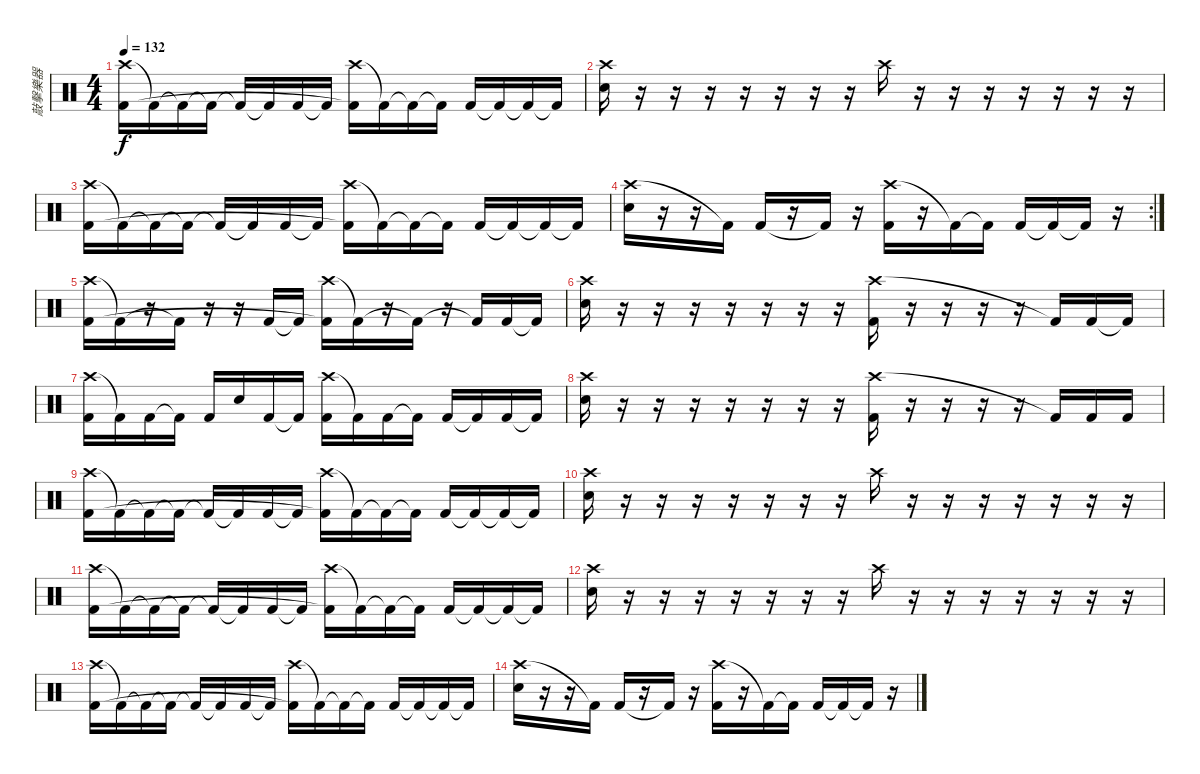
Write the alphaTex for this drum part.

\track ("敲擊樂器" "敲擊樂器") {instrument percussion}
\staff {score}
\articulation defaults
\ts (4 4)
\tempo 132
\clef neutral
\ks c
("Crash high (hit)" "Kick (hit) 2").16{dy f} "Kick (hit) 2"{t}.16 "Kick (hit) 2"{t}.16 "Kick (hit) 2"{t}.16 "Kick (hit) 2"{t}.16 "Kick (hit) 2"{t}.16 "Kick (hit) 2".16 "Kick (hit) 2"{t}.16 ("Crash high (hit)" "Kick (hit) 2"{t}).16 "Kick (hit) 2"{t}.16 "Kick (hit) 2"{t}.16 "Kick (hit) 2"{t}.16 "Kick (hit) 2".16 "Kick (hit) 2"{t}.16 "Kick (hit) 2"{t}.16 "Kick (hit) 2"{t}.16 |
("Crash high (hit)" "Electric Snare (hit)").16 r.16 r.16 r.16 r.16 r.16 r.16 r.16 "Crash high (hit)".16 r.16 r.16 r.16 r.16 r.16 r.16 r.16 |
("Crash high (hit)" "Kick (hit) 2").16 "Kick (hit) 2"{t}.16 "Kick (hit) 2"{t}.16 "Kick (hit) 2"{t}.16 "Kick (hit) 2"{t}.16 "Kick (hit) 2"{t}.16 "Kick (hit) 2".16 "Kick (hit) 2"{t}.16 ("Crash high (hit)" "Kick (hit) 2"{t}).16 "Kick (hit) 2"{t}.16 "Kick (hit) 2"{t}.16 "Kick (hit) 2"{t}.16 "Kick (hit) 2".16 "Kick (hit) 2"{t}.16 "Kick (hit) 2"{t}.16 "Kick (hit) 2"{t}.16 |
\rc 2
("Crash high (hit)" "Electric Snare (hit)").16 r.16 r.16 "Kick (hit) 2"{t}.16 "Kick (hit) 2".16 r.16 "Kick (hit) 2"{t}.16 r.16 ("Crash high (hit)" "Kick (hit) 2").16 r.16 "Kick (hit) 2"{t}.16 "Kick (hit) 2"{t}.16 "Kick (hit) 2".16 "Kick (hit) 2"{t}.16 "Kick (hit) 2"{t}.16 r.16 |
("Crash high (hit)" "Kick (hit) 2").16 "Kick (hit) 2"{t}.16 r.16 "Kick (hit) 2"{t}.16 r.16 r.16 "Kick (hit) 2".16 "Kick (hit) 2"{t}.16 ("Crash high (hit)" "Kick (hit) 2"{t}).16 "Kick (hit) 2"{t}.16 r.16 "Kick (hit) 2"{t}.16 r.16 "Kick (hit) 2"{t}.16 "Kick (hit) 2".16 "Kick (hit) 2"{t}.16 |
("Crash high (hit)" "Electric Snare (hit)").16 r.16 r.16 r.16 r.16 r.16 r.16 r.16 ("Crash high (hit)" "Kick (hit) 2").16 r.16 r.16 r.16 r.16 "Kick (hit) 2"{t}.16 "Kick (hit) 2".16 "Kick (hit) 2"{t}.16 |
("Crash high (hit)" "Kick (hit) 2").16 "Kick (hit) 2"{t}.16 "Kick (hit) 2".16 "Kick (hit) 2"{t}.16 "Kick (hit) 2".16 "Snare (hit)".16 "Kick (hit) 2".16 "Kick (hit) 2"{t}.16 ("Crash high (hit)" "Kick (hit) 2").16 "Kick (hit) 2"{t}.16 "Kick (hit) 2".16 "Kick (hit) 2"{t}.16 "Kick (hit) 2".16 "Kick (hit) 2"{t}.16 "Kick (hit) 2".16 "Kick (hit) 2"{t}.16 |
("Crash high (hit)" "Electric Snare (hit)").16 r.16 r.16 r.16 r.16 r.16 r.16 r.16 ("Crash high (hit)" "Kick (hit) 2").16 r.16 r.16 r.16 r.16 "Kick (hit) 2"{t}.16 "Kick (hit) 2".16 "Kick (hit) 2".16 |
("Crash high (hit)" "Kick (hit) 2").16 "Kick (hit) 2"{t}.16 "Kick (hit) 2"{t}.16 "Kick (hit) 2"{t}.16 "Kick (hit) 2"{t}.16 "Kick (hit) 2"{t}.16 "Kick (hit) 2".16 "Kick (hit) 2"{t}.16 ("Crash high (hit)" "Kick (hit) 2"{t}).16 "Kick (hit) 2"{t}.16 "Kick (hit) 2"{t}.16 "Kick (hit) 2"{t}.16 "Kick (hit) 2".16 "Kick (hit) 2"{t}.16 "Kick (hit) 2"{t}.16 "Kick (hit) 2"{t}.16 |
("Crash high (hit)" "Electric Snare (hit)").16 r.16 r.16 r.16 r.16 r.16 r.16 r.16 "Crash high (hit)".16 r.16 r.16 r.16 r.16 r.16 r.16 r.16 |
("Crash high (hit)" "Kick (hit) 2").16 "Kick (hit) 2"{t}.16 "Kick (hit) 2"{t}.16 "Kick (hit) 2"{t}.16 "Kick (hit) 2"{t}.16 "Kick (hit) 2"{t}.16 "Kick (hit) 2".16 "Kick (hit) 2"{t}.16 ("Crash high (hit)" "Kick (hit) 2"{t}).16 "Kick (hit) 2"{t}.16 "Kick (hit) 2"{t}.16 "Kick (hit) 2"{t}.16 "Kick (hit) 2".16 "Kick (hit) 2"{t}.16 "Kick (hit) 2"{t}.16 "Kick (hit) 2"{t}.16 |
("Crash high (hit)" "Electric Snare (hit)").16 r.16 r.16 r.16 r.16 r.16 r.16 r.16 "Crash high (hit)".16 r.16 r.16 r.16 r.16 r.16 r.16 r.16 |
("Crash high (hit)" "Kick (hit) 2").16 "Kick (hit) 2"{t}.16 "Kick (hit) 2"{t}.16 "Kick (hit) 2"{t}.16 "Kick (hit) 2"{t}.16 "Kick (hit) 2"{t}.16 "Kick (hit) 2".16 "Kick (hit) 2"{t}.16 ("Crash high (hit)" "Kick (hit) 2"{t}).16 "Kick (hit) 2"{t}.16 "Kick (hit) 2"{t}.16 "Kick (hit) 2"{t}.16 "Kick (hit) 2".16 "Kick (hit) 2"{t}.16 "Kick (hit) 2"{t}.16 "Kick (hit) 2"{t}.16 |
("Crash high (hit)" "Electric Snare (hit)").16 r.16 r.16 "Kick (hit) 2"{t}.16 "Kick (hit) 2".16 r.16 "Kick (hit) 2"{t}.16 r.16 ("Crash high (hit)" "Kick (hit) 2").16 r.16 "Kick (hit) 2"{t}.16 "Kick (hit) 2"{t}.16 "Kick (hit) 2".16 "Kick (hit) 2"{t}.16 "Kick (hit) 2"{t}.16 r.16
